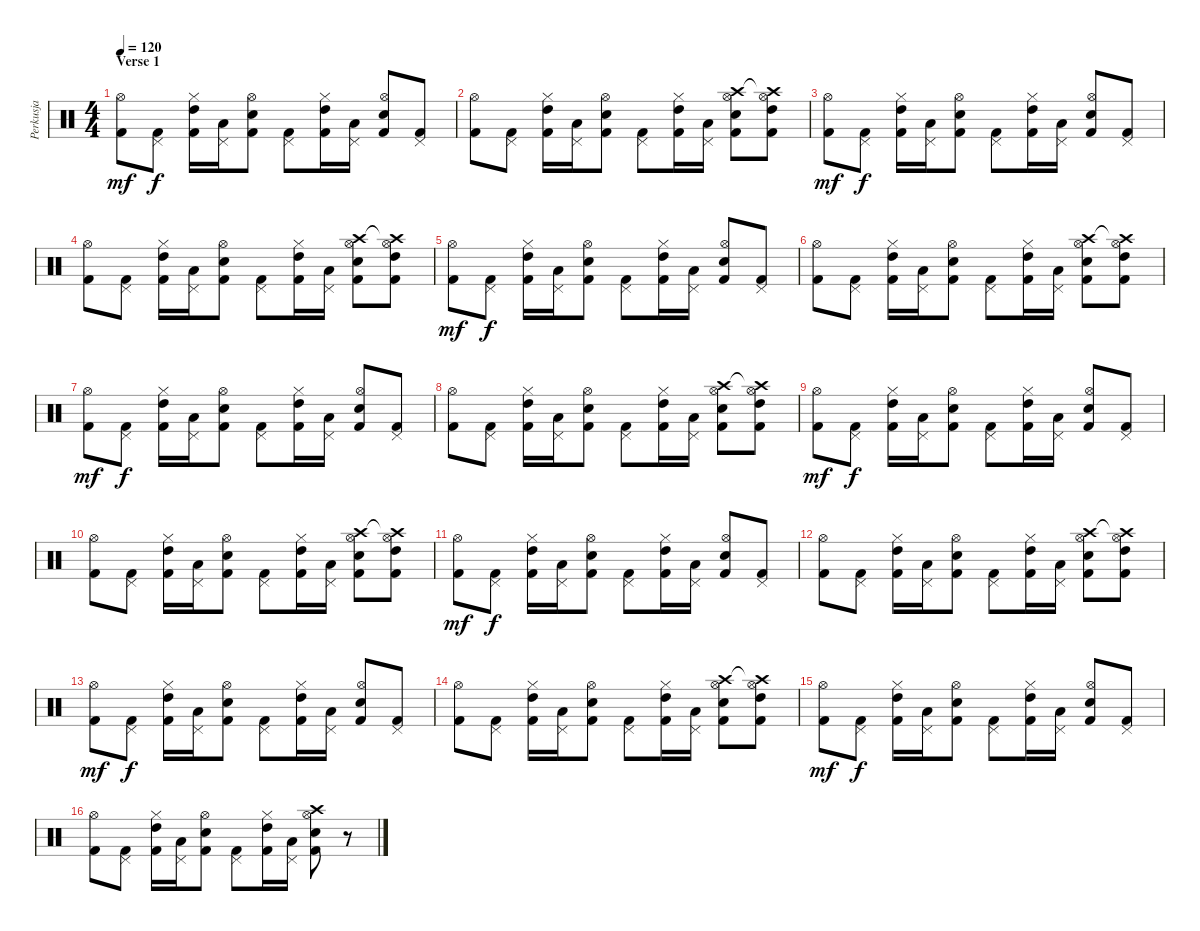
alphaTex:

\track ("Perkusja" "Perkusja") {instrument percussion}
\staff {score}
\articulation defaults
\ts (4 4)
\section ("" "Verse 1")
\tempo 120
\clef neutral
\ks c
("Kick (hit) 2" "Hi-Hat (open)").8{dy mf} ("Kick (hit) 2" "Pedal Hi-Hat (hit)").8{dy f} ("Kick (hit) 2" "High Tom (hit)" "Hi-Hat (closed)").16 ("Low Tom (hit)" "Pedal Hi-Hat (hit)").16 ("Kick (hit) 2" "Snare (hit) 2" "Hi-Hat (open)").8 ("Kick (hit) 2" "Pedal Hi-Hat (hit)").8 ("Kick (hit) 2" "High Tom (hit)" "Hi-Hat (closed)").16 ("Low Tom (hit)" "Pedal Hi-Hat (hit)").16 ("Kick (hit) 2" "Snare (hit) 2" "Hi-Hat (open)").8 ("Kick (hit) 2" "Pedal Hi-Hat (hit)").8 |
("Kick (hit) 2" "Hi-Hat (open)").8 ("Kick (hit) 2" "Pedal Hi-Hat (hit)").8 ("Kick (hit) 2" "High Tom (hit)" "Hi-Hat (closed)").16 ("Low Tom (hit)" "Pedal Hi-Hat (hit)").16 ("Kick (hit) 2" "Snare (hit) 2" "Hi-Hat (open)").8 ("Kick (hit) 2" "Pedal Hi-Hat (hit)").8 ("Kick (hit) 2" "High Tom (hit)" "Hi-Hat (closed)").16 ("Low Tom (hit)" "Pedal Hi-Hat (hit)").16 ("Kick (hit) 2" "Snare (hit) 2" "Crash high (hit)" "Hi-Hat (open)").8 ("Kick (hit) 2" "High Tom (hit)" "Crash high (hit)"{t} "Hi-Hat (open)").8 |
("Kick (hit) 2" "Hi-Hat (open)").8{dy mf} ("Kick (hit) 2" "Pedal Hi-Hat (hit)").8{dy f} ("Kick (hit) 2" "High Tom (hit)" "Hi-Hat (closed)").16 ("Low Tom (hit)" "Pedal Hi-Hat (hit)").16 ("Kick (hit) 2" "Snare (hit) 2" "Hi-Hat (open)").8 ("Kick (hit) 2" "Pedal Hi-Hat (hit)").8 ("Kick (hit) 2" "High Tom (hit)" "Hi-Hat (closed)").16 ("Low Tom (hit)" "Pedal Hi-Hat (hit)").16 ("Kick (hit) 2" "Snare (hit) 2" "Hi-Hat (open)").8 ("Kick (hit) 2" "Pedal Hi-Hat (hit)").8 |
("Kick (hit) 2" "Hi-Hat (open)").8 ("Kick (hit) 2" "Pedal Hi-Hat (hit)").8 ("Kick (hit) 2" "High Tom (hit)" "Hi-Hat (closed)").16 ("Low Tom (hit)" "Pedal Hi-Hat (hit)").16 ("Kick (hit) 2" "Snare (hit) 2" "Hi-Hat (open)").8 ("Kick (hit) 2" "Pedal Hi-Hat (hit)").8 ("Kick (hit) 2" "High Tom (hit)" "Hi-Hat (closed)").16 ("Low Tom (hit)" "Pedal Hi-Hat (hit)").16 ("Kick (hit) 2" "Snare (hit) 2" "Crash high (hit)" "Hi-Hat (open)").8 ("Kick (hit) 2" "High Tom (hit)" "Crash high (hit)"{t} "Hi-Hat (open)").8 |
("Kick (hit) 2" "Hi-Hat (open)").8{dy mf} ("Kick (hit) 2" "Pedal Hi-Hat (hit)").8{dy f} ("Kick (hit) 2" "High Tom (hit)" "Hi-Hat (closed)").16 ("Low Tom (hit)" "Pedal Hi-Hat (hit)").16 ("Kick (hit) 2" "Snare (hit) 2" "Hi-Hat (open)").8 ("Kick (hit) 2" "Pedal Hi-Hat (hit)").8 ("Kick (hit) 2" "High Tom (hit)" "Hi-Hat (closed)").16 ("Low Tom (hit)" "Pedal Hi-Hat (hit)").16 ("Kick (hit) 2" "Snare (hit) 2" "Hi-Hat (open)").8 ("Kick (hit) 2" "Pedal Hi-Hat (hit)").8 |
("Kick (hit) 2" "Hi-Hat (open)").8 ("Kick (hit) 2" "Pedal Hi-Hat (hit)").8 ("Kick (hit) 2" "High Tom (hit)" "Hi-Hat (closed)").16 ("Low Tom (hit)" "Pedal Hi-Hat (hit)").16 ("Kick (hit) 2" "Snare (hit) 2" "Hi-Hat (open)").8 ("Kick (hit) 2" "Pedal Hi-Hat (hit)").8 ("Kick (hit) 2" "High Tom (hit)" "Hi-Hat (closed)").16 ("Low Tom (hit)" "Pedal Hi-Hat (hit)").16 ("Kick (hit) 2" "Snare (hit) 2" "Crash high (hit)" "Hi-Hat (open)").8 ("Kick (hit) 2" "High Tom (hit)" "Crash high (hit)"{t} "Hi-Hat (open)").8 |
("Kick (hit) 2" "Hi-Hat (open)").8{dy mf} ("Kick (hit) 2" "Pedal Hi-Hat (hit)").8{dy f} ("Kick (hit) 2" "High Tom (hit)" "Hi-Hat (closed)").16 ("Low Tom (hit)" "Pedal Hi-Hat (hit)").16 ("Kick (hit) 2" "Snare (hit) 2" "Hi-Hat (open)").8 ("Kick (hit) 2" "Pedal Hi-Hat (hit)").8 ("Kick (hit) 2" "High Tom (hit)" "Hi-Hat (closed)").16 ("Low Tom (hit)" "Pedal Hi-Hat (hit)").16 ("Kick (hit) 2" "Snare (hit) 2" "Hi-Hat (open)").8 ("Kick (hit) 2" "Pedal Hi-Hat (hit)").8 |
("Kick (hit) 2" "Hi-Hat (open)").8 ("Kick (hit) 2" "Pedal Hi-Hat (hit)").8 ("Kick (hit) 2" "High Tom (hit)" "Hi-Hat (closed)").16 ("Low Tom (hit)" "Pedal Hi-Hat (hit)").16 ("Kick (hit) 2" "Snare (hit) 2" "Hi-Hat (open)").8 ("Kick (hit) 2" "Pedal Hi-Hat (hit)").8 ("Kick (hit) 2" "High Tom (hit)" "Hi-Hat (closed)").16 ("Low Tom (hit)" "Pedal Hi-Hat (hit)").16 ("Kick (hit) 2" "Snare (hit) 2" "Crash high (hit)" "Hi-Hat (open)").8 ("Kick (hit) 2" "High Tom (hit)" "Crash high (hit)"{t} "Hi-Hat (open)").8 |
("Kick (hit) 2" "Hi-Hat (open)").8{dy mf} ("Kick (hit) 2" "Pedal Hi-Hat (hit)").8{dy f} ("Kick (hit) 2" "High Tom (hit)" "Hi-Hat (closed)").16 ("Low Tom (hit)" "Pedal Hi-Hat (hit)").16 ("Kick (hit) 2" "Snare (hit) 2" "Hi-Hat (open)").8 ("Kick (hit) 2" "Pedal Hi-Hat (hit)").8 ("Kick (hit) 2" "High Tom (hit)" "Hi-Hat (closed)").16 ("Low Tom (hit)" "Pedal Hi-Hat (hit)").16 ("Kick (hit) 2" "Snare (hit) 2" "Hi-Hat (open)").8 ("Kick (hit) 2" "Pedal Hi-Hat (hit)").8 |
("Kick (hit) 2" "Hi-Hat (open)").8 ("Kick (hit) 2" "Pedal Hi-Hat (hit)").8 ("Kick (hit) 2" "High Tom (hit)" "Hi-Hat (closed)").16 ("Low Tom (hit)" "Pedal Hi-Hat (hit)").16 ("Kick (hit) 2" "Snare (hit) 2" "Hi-Hat (open)").8 ("Kick (hit) 2" "Pedal Hi-Hat (hit)").8 ("Kick (hit) 2" "High Tom (hit)" "Hi-Hat (closed)").16 ("Low Tom (hit)" "Pedal Hi-Hat (hit)").16 ("Kick (hit) 2" "Snare (hit) 2" "Crash high (hit)" "Hi-Hat (open)").8 ("Kick (hit) 2" "High Tom (hit)" "Crash high (hit)"{t} "Hi-Hat (open)").8 |
("Kick (hit) 2" "Hi-Hat (open)").8{dy mf} ("Kick (hit) 2" "Pedal Hi-Hat (hit)").8{dy f} ("Kick (hit) 2" "High Tom (hit)" "Hi-Hat (closed)").16 ("Low Tom (hit)" "Pedal Hi-Hat (hit)").16 ("Kick (hit) 2" "Snare (hit) 2" "Hi-Hat (open)").8 ("Kick (hit) 2" "Pedal Hi-Hat (hit)").8 ("Kick (hit) 2" "High Tom (hit)" "Hi-Hat (closed)").16 ("Low Tom (hit)" "Pedal Hi-Hat (hit)").16 ("Kick (hit) 2" "Snare (hit) 2" "Hi-Hat (open)").8 ("Kick (hit) 2" "Pedal Hi-Hat (hit)").8 |
("Kick (hit) 2" "Hi-Hat (open)").8 ("Kick (hit) 2" "Pedal Hi-Hat (hit)").8 ("Kick (hit) 2" "High Tom (hit)" "Hi-Hat (closed)").16 ("Low Tom (hit)" "Pedal Hi-Hat (hit)").16 ("Kick (hit) 2" "Snare (hit) 2" "Hi-Hat (open)").8 ("Kick (hit) 2" "Pedal Hi-Hat (hit)").8 ("Kick (hit) 2" "High Tom (hit)" "Hi-Hat (closed)").16 ("Low Tom (hit)" "Pedal Hi-Hat (hit)").16 ("Kick (hit) 2" "Snare (hit) 2" "Crash high (hit)" "Hi-Hat (open)").8 ("Kick (hit) 2" "High Tom (hit)" "Crash high (hit)"{t} "Hi-Hat (open)").8 |
("Kick (hit) 2" "Hi-Hat (open)").8{dy mf} ("Kick (hit) 2" "Pedal Hi-Hat (hit)").8{dy f} ("Kick (hit) 2" "High Tom (hit)" "Hi-Hat (closed)").16 ("Low Tom (hit)" "Pedal Hi-Hat (hit)").16 ("Kick (hit) 2" "Snare (hit) 2" "Hi-Hat (open)").8 ("Kick (hit) 2" "Pedal Hi-Hat (hit)").8 ("Kick (hit) 2" "High Tom (hit)" "Hi-Hat (closed)").16 ("Low Tom (hit)" "Pedal Hi-Hat (hit)").16 ("Kick (hit) 2" "Snare (hit) 2" "Hi-Hat (open)").8 ("Kick (hit) 2" "Pedal Hi-Hat (hit)").8 |
("Kick (hit) 2" "Hi-Hat (open)").8 ("Kick (hit) 2" "Pedal Hi-Hat (hit)").8 ("Kick (hit) 2" "High Tom (hit)" "Hi-Hat (closed)").16 ("Low Tom (hit)" "Pedal Hi-Hat (hit)").16 ("Kick (hit) 2" "Snare (hit) 2" "Hi-Hat (open)").8 ("Kick (hit) 2" "Pedal Hi-Hat (hit)").8 ("Kick (hit) 2" "High Tom (hit)" "Hi-Hat (closed)").16 ("Low Tom (hit)" "Pedal Hi-Hat (hit)").16 ("Kick (hit) 2" "Snare (hit) 2" "Crash high (hit)" "Hi-Hat (open)").8 ("Kick (hit) 2" "High Tom (hit)" "Crash high (hit)"{t} "Hi-Hat (open)").8 |
("Kick (hit) 2" "Hi-Hat (open)").8{dy mf} ("Kick (hit) 2" "Pedal Hi-Hat (hit)").8{dy f} ("Kick (hit) 2" "High Tom (hit)" "Hi-Hat (closed)").16 ("Low Tom (hit)" "Pedal Hi-Hat (hit)").16 ("Kick (hit) 2" "Snare (hit) 2" "Hi-Hat (open)").8 ("Kick (hit) 2" "Pedal Hi-Hat (hit)").8 ("Kick (hit) 2" "High Tom (hit)" "Hi-Hat (closed)").16 ("Low Tom (hit)" "Pedal Hi-Hat (hit)").16 ("Kick (hit) 2" "Snare (hit) 2" "Hi-Hat (open)").8 ("Kick (hit) 2" "Pedal Hi-Hat (hit)").8 |
("Kick (hit) 2" "Hi-Hat (open)").8 ("Kick (hit) 2" "Pedal Hi-Hat (hit)").8 ("Kick (hit) 2" "High Tom (hit)" "Hi-Hat (closed)").16 ("Low Tom (hit)" "Pedal Hi-Hat (hit)").16 ("Kick (hit) 2" "Snare (hit) 2" "Hi-Hat (open)").8 ("Kick (hit) 2" "Pedal Hi-Hat (hit)").8 ("Kick (hit) 2" "High Tom (hit)" "Hi-Hat (closed)").16 ("Low Tom (hit)" "Pedal Hi-Hat (hit)").16 ("Kick (hit) 2" "Snare (hit) 2" "Crash high (hit)" "Hi-Hat (open)").8 r.8
